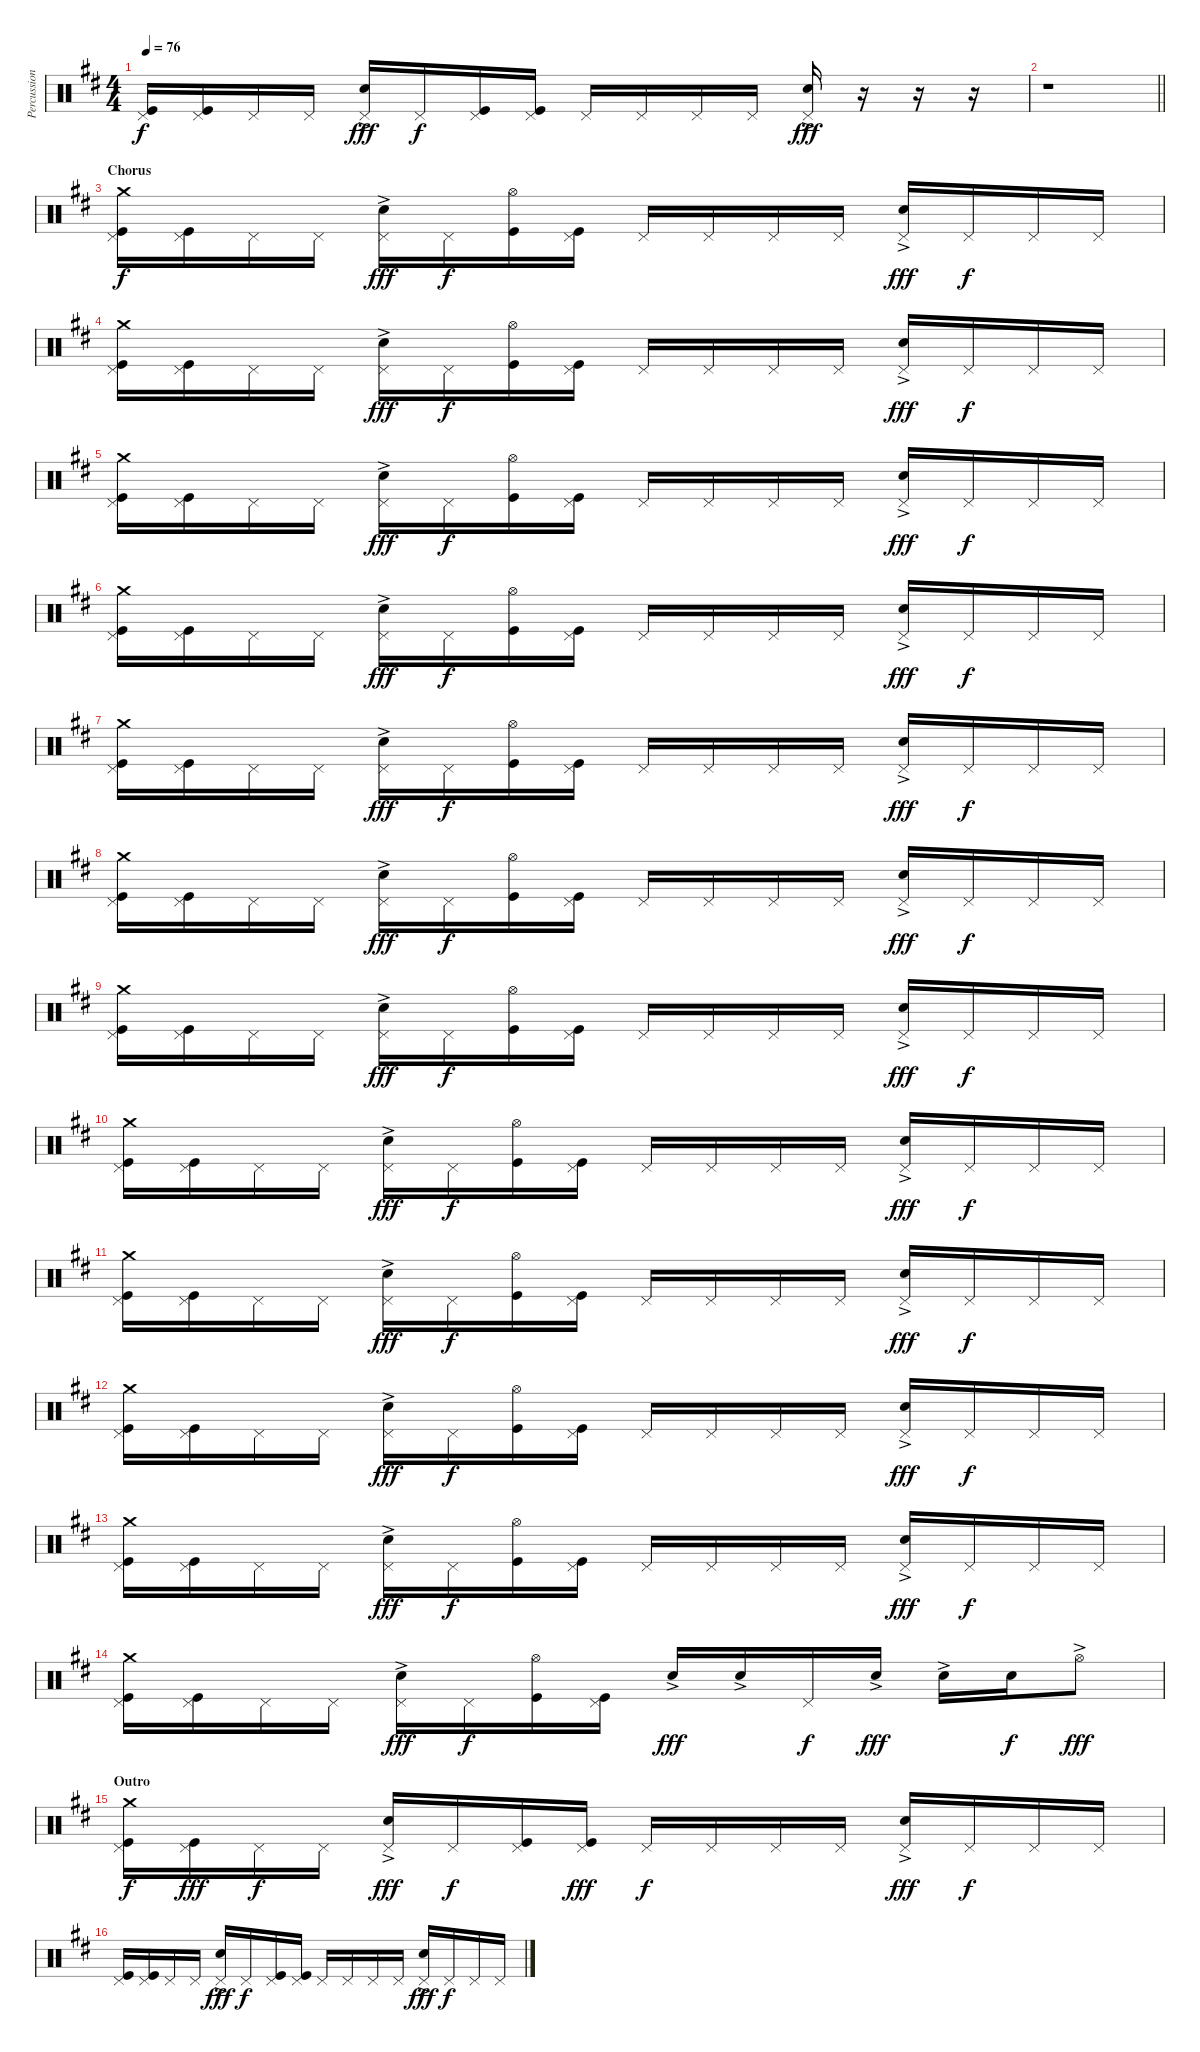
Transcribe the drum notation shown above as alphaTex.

\track ("Percussion" "Percussion") {instrument percussion}
\staff {score}
\articulation defaults
\ts (4 4)
\tempo 76
\clef neutral
\ks d
("Kick (hit)" "Pedal Hi-Hat (hit)").16{dy f} ("Kick (hit)" "Pedal Hi-Hat (hit)").16 "Pedal Hi-Hat (hit)".16 "Pedal Hi-Hat (hit)".16 ("Electric Snare (hit)"{ac} "Pedal Hi-Hat (hit)").16{dy fff} "Pedal Hi-Hat (hit)".16{dy f} ("Kick (hit)" "Pedal Hi-Hat (hit)").16 ("Kick (hit)" "Pedal Hi-Hat (hit)").16 "Pedal Hi-Hat (hit)".16 "Pedal Hi-Hat (hit)".16 "Pedal Hi-Hat (hit)".16 "Pedal Hi-Hat (hit)".16 ("Electric Snare (hit)"{ac} "Pedal Hi-Hat (hit)").16{dy fff} r.16 r.16 r.16 |
\barLineRight lightlight
r.1 |
\section ("" "Chorus")
("Kick (hit)" "Pedal Hi-Hat (hit)" "Crash medium (hit)").16{dy f} ("Kick (hit)" "Pedal Hi-Hat (hit)").16 "Pedal Hi-Hat (hit)".16 "Pedal Hi-Hat (hit)".16 ("Electric Snare (hit)"{ac} "Pedal Hi-Hat (hit)").16{dy fff} "Pedal Hi-Hat (hit)".16{dy f} ("Kick (hit)" "Hi-Hat (open)").16 ("Kick (hit)" "Pedal Hi-Hat (hit)").16 "Pedal Hi-Hat (hit)".16 "Pedal Hi-Hat (hit)".16 "Pedal Hi-Hat (hit)".16 "Pedal Hi-Hat (hit)".16 ("Electric Snare (hit)"{ac} "Pedal Hi-Hat (hit)").16{dy fff} "Pedal Hi-Hat (hit)".16{dy f} "Pedal Hi-Hat (hit)".16 "Pedal Hi-Hat (hit)".16 |
("Kick (hit)" "Pedal Hi-Hat (hit)" "Crash medium (hit)").16 ("Kick (hit)" "Pedal Hi-Hat (hit)").16 "Pedal Hi-Hat (hit)".16 "Pedal Hi-Hat (hit)".16 ("Electric Snare (hit)"{ac} "Pedal Hi-Hat (hit)").16{dy fff} "Pedal Hi-Hat (hit)".16{dy f} ("Kick (hit)" "Hi-Hat (open)").16 ("Kick (hit)" "Pedal Hi-Hat (hit)").16 "Pedal Hi-Hat (hit)".16 "Pedal Hi-Hat (hit)".16 "Pedal Hi-Hat (hit)".16 "Pedal Hi-Hat (hit)".16 ("Electric Snare (hit)"{ac} "Pedal Hi-Hat (hit)").16{dy fff} "Pedal Hi-Hat (hit)".16{dy f} "Pedal Hi-Hat (hit)".16 "Pedal Hi-Hat (hit)".16 |
("Kick (hit)" "Pedal Hi-Hat (hit)" "Crash medium (hit)").16 ("Kick (hit)" "Pedal Hi-Hat (hit)").16 "Pedal Hi-Hat (hit)".16 "Pedal Hi-Hat (hit)".16 ("Electric Snare (hit)"{ac} "Pedal Hi-Hat (hit)").16{dy fff} "Pedal Hi-Hat (hit)".16{dy f} ("Kick (hit)" "Hi-Hat (open)").16 ("Kick (hit)" "Pedal Hi-Hat (hit)").16 "Pedal Hi-Hat (hit)".16 "Pedal Hi-Hat (hit)".16 "Pedal Hi-Hat (hit)".16 "Pedal Hi-Hat (hit)".16 ("Electric Snare (hit)"{ac} "Pedal Hi-Hat (hit)").16{dy fff} "Pedal Hi-Hat (hit)".16{dy f} "Pedal Hi-Hat (hit)".16 "Pedal Hi-Hat (hit)".16 |
("Kick (hit)" "Pedal Hi-Hat (hit)" "Crash medium (hit)").16 ("Kick (hit)" "Pedal Hi-Hat (hit)").16 "Pedal Hi-Hat (hit)".16 "Pedal Hi-Hat (hit)".16 ("Electric Snare (hit)"{ac} "Pedal Hi-Hat (hit)").16{dy fff} "Pedal Hi-Hat (hit)".16{dy f} ("Kick (hit)" "Hi-Hat (open)").16 ("Kick (hit)" "Pedal Hi-Hat (hit)").16 "Pedal Hi-Hat (hit)".16 "Pedal Hi-Hat (hit)".16 "Pedal Hi-Hat (hit)".16 "Pedal Hi-Hat (hit)".16 ("Electric Snare (hit)"{ac} "Pedal Hi-Hat (hit)").16{dy fff} "Pedal Hi-Hat (hit)".16{dy f} "Pedal Hi-Hat (hit)".16 "Pedal Hi-Hat (hit)".16 |
("Kick (hit)" "Pedal Hi-Hat (hit)" "Crash medium (hit)").16 ("Kick (hit)" "Pedal Hi-Hat (hit)").16 "Pedal Hi-Hat (hit)".16 "Pedal Hi-Hat (hit)".16 ("Electric Snare (hit)"{ac} "Pedal Hi-Hat (hit)").16{dy fff} "Pedal Hi-Hat (hit)".16{dy f} ("Kick (hit)" "Hi-Hat (open)").16 ("Kick (hit)" "Pedal Hi-Hat (hit)").16 "Pedal Hi-Hat (hit)".16 "Pedal Hi-Hat (hit)".16 "Pedal Hi-Hat (hit)".16 "Pedal Hi-Hat (hit)".16 ("Electric Snare (hit)"{ac} "Pedal Hi-Hat (hit)").16{dy fff} "Pedal Hi-Hat (hit)".16{dy f} "Pedal Hi-Hat (hit)".16 "Pedal Hi-Hat (hit)".16 |
("Kick (hit)" "Pedal Hi-Hat (hit)" "Crash medium (hit)").16 ("Kick (hit)" "Pedal Hi-Hat (hit)").16 "Pedal Hi-Hat (hit)".16 "Pedal Hi-Hat (hit)".16 ("Electric Snare (hit)"{ac} "Pedal Hi-Hat (hit)").16{dy fff} "Pedal Hi-Hat (hit)".16{dy f} ("Kick (hit)" "Hi-Hat (open)").16 ("Kick (hit)" "Pedal Hi-Hat (hit)").16 "Pedal Hi-Hat (hit)".16 "Pedal Hi-Hat (hit)".16 "Pedal Hi-Hat (hit)".16 "Pedal Hi-Hat (hit)".16 ("Electric Snare (hit)"{ac} "Pedal Hi-Hat (hit)").16{dy fff} "Pedal Hi-Hat (hit)".16{dy f} "Pedal Hi-Hat (hit)".16 "Pedal Hi-Hat (hit)".16 |
("Kick (hit)" "Pedal Hi-Hat (hit)" "Crash medium (hit)").16 ("Kick (hit)" "Pedal Hi-Hat (hit)").16 "Pedal Hi-Hat (hit)".16 "Pedal Hi-Hat (hit)".16 ("Electric Snare (hit)"{ac} "Pedal Hi-Hat (hit)").16{dy fff} "Pedal Hi-Hat (hit)".16{dy f} ("Kick (hit)" "Hi-Hat (open)").16 ("Kick (hit)" "Pedal Hi-Hat (hit)").16 "Pedal Hi-Hat (hit)".16 "Pedal Hi-Hat (hit)".16 "Pedal Hi-Hat (hit)".16 "Pedal Hi-Hat (hit)".16 ("Electric Snare (hit)"{ac} "Pedal Hi-Hat (hit)").16{dy fff} "Pedal Hi-Hat (hit)".16{dy f} "Pedal Hi-Hat (hit)".16 "Pedal Hi-Hat (hit)".16 |
("Kick (hit)" "Pedal Hi-Hat (hit)" "Crash medium (hit)").16 ("Kick (hit)" "Pedal Hi-Hat (hit)").16 "Pedal Hi-Hat (hit)".16 "Pedal Hi-Hat (hit)".16 ("Electric Snare (hit)"{ac} "Pedal Hi-Hat (hit)").16{dy fff} "Pedal Hi-Hat (hit)".16{dy f} ("Kick (hit)" "Hi-Hat (open)").16 ("Kick (hit)" "Pedal Hi-Hat (hit)").16 "Pedal Hi-Hat (hit)".16 "Pedal Hi-Hat (hit)".16 "Pedal Hi-Hat (hit)".16 "Pedal Hi-Hat (hit)".16 ("Electric Snare (hit)"{ac} "Pedal Hi-Hat (hit)").16{dy fff} "Pedal Hi-Hat (hit)".16{dy f} "Pedal Hi-Hat (hit)".16 "Pedal Hi-Hat (hit)".16 |
("Kick (hit)" "Pedal Hi-Hat (hit)" "Crash medium (hit)").16 ("Kick (hit)" "Pedal Hi-Hat (hit)").16 "Pedal Hi-Hat (hit)".16 "Pedal Hi-Hat (hit)".16 ("Electric Snare (hit)"{ac} "Pedal Hi-Hat (hit)").16{dy fff} "Pedal Hi-Hat (hit)".16{dy f} ("Kick (hit)" "Hi-Hat (open)").16 ("Kick (hit)" "Pedal Hi-Hat (hit)").16 "Pedal Hi-Hat (hit)".16 "Pedal Hi-Hat (hit)".16 "Pedal Hi-Hat (hit)".16 "Pedal Hi-Hat (hit)".16 ("Electric Snare (hit)"{ac} "Pedal Hi-Hat (hit)").16{dy fff} "Pedal Hi-Hat (hit)".16{dy f} "Pedal Hi-Hat (hit)".16 "Pedal Hi-Hat (hit)".16 |
("Kick (hit)" "Pedal Hi-Hat (hit)" "Crash medium (hit)").16 ("Kick (hit)" "Pedal Hi-Hat (hit)").16 "Pedal Hi-Hat (hit)".16 "Pedal Hi-Hat (hit)".16 ("Electric Snare (hit)"{ac} "Pedal Hi-Hat (hit)").16{dy fff} "Pedal Hi-Hat (hit)".16{dy f} ("Kick (hit)" "Hi-Hat (open)").16 ("Kick (hit)" "Pedal Hi-Hat (hit)").16 "Pedal Hi-Hat (hit)".16 "Pedal Hi-Hat (hit)".16 "Pedal Hi-Hat (hit)".16 "Pedal Hi-Hat (hit)".16 ("Electric Snare (hit)"{ac} "Pedal Hi-Hat (hit)").16{dy fff} "Pedal Hi-Hat (hit)".16{dy f} "Pedal Hi-Hat (hit)".16 "Pedal Hi-Hat (hit)".16 |
("Kick (hit)" "Pedal Hi-Hat (hit)" "Crash medium (hit)").16 ("Kick (hit)" "Pedal Hi-Hat (hit)").16 "Pedal Hi-Hat (hit)".16 "Pedal Hi-Hat (hit)".16 ("Electric Snare (hit)"{ac} "Pedal Hi-Hat (hit)").16{dy fff} "Pedal Hi-Hat (hit)".16{dy f} ("Kick (hit)" "Hi-Hat (open)").16 ("Kick (hit)" "Pedal Hi-Hat (hit)").16 "Pedal Hi-Hat (hit)".16 "Pedal Hi-Hat (hit)".16 "Pedal Hi-Hat (hit)".16 "Pedal Hi-Hat (hit)".16 ("Electric Snare (hit)"{ac} "Pedal Hi-Hat (hit)").16{dy fff} "Pedal Hi-Hat (hit)".16{dy f} "Pedal Hi-Hat (hit)".16 "Pedal Hi-Hat (hit)".16 |
("Kick (hit)" "Pedal Hi-Hat (hit)" "Crash medium (hit)").16 ("Kick (hit)" "Pedal Hi-Hat (hit)").16 "Pedal Hi-Hat (hit)".16 "Pedal Hi-Hat (hit)".16 ("Electric Snare (hit)"{ac} "Pedal Hi-Hat (hit)").16{dy fff} "Pedal Hi-Hat (hit)".16{dy f} ("Kick (hit)" "Hi-Hat (open)").16 ("Kick (hit)" "Pedal Hi-Hat (hit)").16 "Electric Snare (hit)"{ac}.16{dy fff} "Electric Snare (hit)"{ac}.16 "Pedal Hi-Hat (hit)".16{dy f} "Electric Snare (hit)"{ac}.16{dy fff} "Electric Snare (hit)"{ac}.16 "Electric Snare (hit)".16{dy f} "Hi-Hat (open)"{ac}.8{dy fff} |
\section ("" "Outro")
("Kick (hit)" "Pedal Hi-Hat (hit)" "Crash medium (hit)").16{dy f} ("Kick (hit)" "Pedal Hi-Hat (hit)").16{dy fff} "Pedal Hi-Hat (hit)".16{dy f} "Pedal Hi-Hat (hit)".16 ("Electric Snare (hit)"{ac} "Pedal Hi-Hat (hit)").16{dy fff} "Pedal Hi-Hat (hit)".16{dy f} ("Kick (hit)" "Pedal Hi-Hat (hit)").16 ("Kick (hit)" "Pedal Hi-Hat (hit)").16{dy fff} "Pedal Hi-Hat (hit)".16{dy f} "Pedal Hi-Hat (hit)".16 "Pedal Hi-Hat (hit)".16 "Pedal Hi-Hat (hit)".16 ("Electric Snare (hit)"{ac} "Pedal Hi-Hat (hit)").16{dy fff} "Pedal Hi-Hat (hit)".16{dy f} "Pedal Hi-Hat (hit)".16 "Pedal Hi-Hat (hit)".16 |
("Kick (hit)" "Pedal Hi-Hat (hit)").16 ("Kick (hit)" "Pedal Hi-Hat (hit)").16 "Pedal Hi-Hat (hit)".16 "Pedal Hi-Hat (hit)".16 ("Electric Snare (hit)"{ac} "Pedal Hi-Hat (hit)").16{dy fff} "Pedal Hi-Hat (hit)".16{dy f} ("Kick (hit)" "Pedal Hi-Hat (hit)").16 ("Kick (hit)" "Pedal Hi-Hat (hit)").16 "Pedal Hi-Hat (hit)".16 "Pedal Hi-Hat (hit)".16 "Pedal Hi-Hat (hit)".16 "Pedal Hi-Hat (hit)".16 ("Electric Snare (hit)"{ac} "Pedal Hi-Hat (hit)").16{dy fff} "Pedal Hi-Hat (hit)".16{dy f} "Pedal Hi-Hat (hit)".16 "Pedal Hi-Hat (hit)".16
